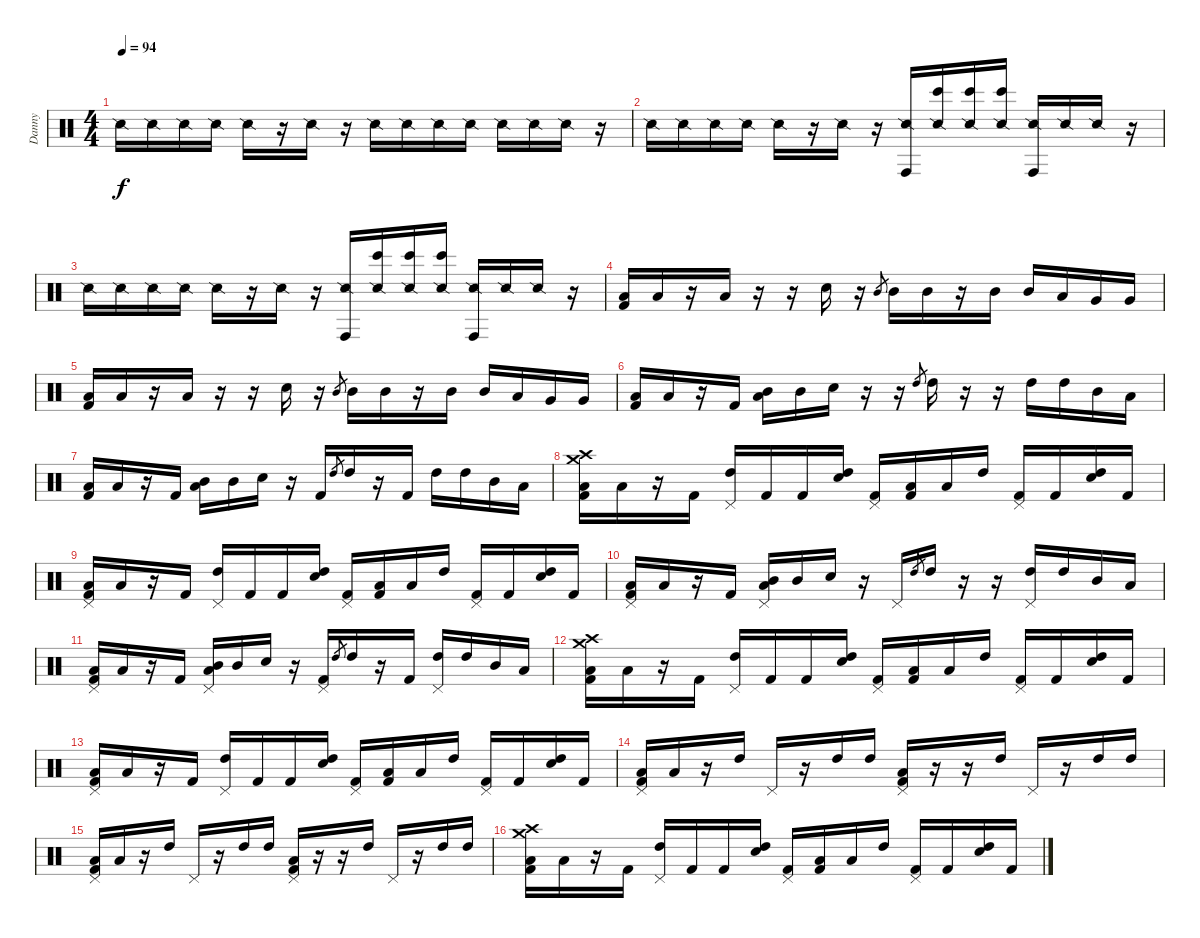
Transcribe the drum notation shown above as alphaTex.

\track ("Danny" "Danny") {instrument percussion}
\staff {score}
\articulation defaults
\ts (4 4)
\tempo 94
\clef neutral
\ks c "Snare (side stick) 2".16{dy f} "Snare (side stick) 2".16 "Snare (side stick) 2".16 "Snare (side stick) 2".16 "Snare (side stick) 2".16
r.16 "Snare (side stick) 2".16 r.16 "Snare (side stick) 2".16 "Snare (side stick) 2".16 "Snare (side stick) 2".16 "Snare (side stick) 2".16 "Snare (side stick) 2".16 "Snare (side stick) 2".16 "Snare (side stick) 2".16 r.16 |
"Snare (side stick) 2".16 "Snare (side stick) 2".16 "Snare (side stick) 2".16 "Snare (side stick) 2".16 "Snare (side stick) 2".16 r.16 "Snare (side stick) 2".16 r.16 ("Conga high (hit)" "Snare (side stick) 2").16 ("Bongo High (hit)" "Snare (side stick) 2").16 ("Bongo High (hit)" "Snare (side stick) 2").16 ("Bongo High (hit)" "Snare (side stick) 2").16 ("Conga high (hit)" "Snare (side stick) 2").16 "Snare (side stick) 2".16 "Snare (side stick) 2".16 r.16 |
"Snare (side stick) 2".16 "Snare (side stick) 2".16 "Snare (side stick) 2".16 "Snare (side stick) 2".16 "Snare (side stick) 2".16 r.16 "Snare (side stick) 2".16 r.16 ("Conga high (hit)" "Snare (side stick) 2").16 ("Bongo High (hit)" "Snare (side stick) 2").16 ("Bongo High (hit)" "Snare (side stick) 2").16 ("Bongo High (hit)" "Snare (side stick) 2").16 ("Conga high (hit)" "Snare (side stick) 2").16 "Snare (side stick) 2".16 "Snare (side stick) 2".16 r.16 |
("Low Floor Tom (hit)" "Kick (hit) 2").16 "Low Floor Tom (hit)".16 r.16 "Low Tom (hit)".16 r.16 r.16 "Snare (hit) 2".16 r.16 "Mid Tom (hit)".8{gr} "Mid Tom (hit)".16 "Mid Tom (hit)".16 r.16 "Mid Tom (hit)".16 "Mid Tom (hit)".16 "Low Tom (hit)".16 "Very Low Tom (hit)".16 "Very Low Tom (hit)".16 |
("Low Floor Tom (hit)" "Kick (hit) 2").16 "Low Floor Tom (hit)".16 r.16 "Low Tom (hit)".16 r.16 r.16 "Snare (hit) 2".16 r.16 "Mid Tom (hit)".8{gr} "Mid Tom (hit)".16 "Mid Tom (hit)".16 r.16 "Mid Tom (hit)".16 "Mid Tom (hit)".16 "Low Tom (hit)".16 "Very Low Tom (hit)".16 "Very Low Tom (hit)".16 |
("Low Floor Tom (hit)" "Kick (hit) 2").16 "Low Floor Tom (hit)".16 r.16 "Kick (hit) 2".16 ("Mid Tom (hit)" "Low Floor Tom (hit)").16 "Mid Tom (hit)".16 "Snare (hit) 2".16 r.16 r.16 "High Tom (hit)".8{gr} "High Tom (hit)".16 r.16 r.16 "High Tom (hit)".16 "High Tom (hit)".16 "Mid Tom (hit)".16 "Low Floor Tom (hit)".16 |
("Low Floor Tom (hit)" "Kick (hit) 2").16 "Low Floor Tom (hit)".16 r.16 "Kick (hit) 2".16 ("Mid Tom (hit)" "Low Floor Tom (hit)").16 "Mid Tom (hit)".16 "Snare (hit) 2".16 r.16 "Kick (hit) 2".16 "High Tom (hit)".8{gr} "High Tom (hit)".16 r.16 "Kick (hit) 2".16 "High Tom (hit)".16 "High Tom (hit)".16 "Mid Tom (hit)".16 "Low Floor Tom (hit)".16 |
("Crash medium (hit)" "Crash high (hit)" "Low Floor Tom (hit)" "Kick (hit) 2").16 "Low Floor Tom (hit)".16 r.16 "Kick (hit) 2".16 ("Pedal Hi-Hat (hit)" "High Tom (hit)").16 "Kick (hit) 2".16 "Kick (hit) 2".16 ("High Tom (hit)" "Snare (hit) 2").16 ("Pedal Hi-Hat (hit)" "Kick (hit) 2").16 ("Low Floor Tom (hit)" "Kick (hit) 2").16 "Low Floor Tom (hit)".16 "High Tom (hit)".16 ("Pedal Hi-Hat (hit)" "Kick (hit) 2").16 "Kick (hit) 2".16 ("High Tom (hit)" "Snare (hit) 2").16 "Kick (hit) 2".16 |
("Pedal Hi-Hat (hit)" "Low Floor Tom (hit)" "Kick (hit) 2").16 "Low Floor Tom (hit)".16 r.16 "Kick (hit) 2".16 ("Pedal Hi-Hat (hit)" "High Tom (hit)").16 "Kick (hit) 2".16 "Kick (hit) 2".16 ("High Tom (hit)" "Snare (hit) 2").16 ("Pedal Hi-Hat (hit)" "Kick (hit) 2").16 ("Low Floor Tom (hit)" "Kick (hit) 2").16 "Low Floor Tom (hit)".16 "High Tom (hit)".16 ("Pedal Hi-Hat (hit)" "Kick (hit) 2").16 "Kick (hit) 2".16 ("High Tom (hit)" "Snare (hit) 2").16 "Kick (hit) 2".16 |
("Pedal Hi-Hat (hit)" "Low Floor Tom (hit)" "Kick (hit) 2").16 "Low Floor Tom (hit)".16 r.16 "Kick (hit) 2".16 ("Pedal Hi-Hat (hit)" "Mid Tom (hit)" "Low Floor Tom (hit)").16 "Mid Tom (hit)".16 "Snare (hit) 2".16 r.16 "Pedal Hi-Hat (hit)".16 "High Tom (hit)".8{gr} "High Tom (hit)".16 r.16 r.16 ("Pedal Hi-Hat (hit)" "High Tom (hit)").16 "High Tom (hit)".16 "Mid Tom (hit)".16 "Low Floor Tom (hit)".16 |
("Pedal Hi-Hat (hit)" "Low Floor Tom (hit)" "Kick (hit) 2").16 "Low Floor Tom (hit)".16 r.16 "Kick (hit) 2".16 ("Pedal Hi-Hat (hit)" "Mid Tom (hit)" "Low Floor Tom (hit)").16 "Mid Tom (hit)".16 "Snare (hit) 2".16 r.16 ("Pedal Hi-Hat (hit)" "Kick (hit) 2").16 "High Tom (hit)".8{gr} "High Tom (hit)".16 r.16 "Kick (hit) 2".16 ("Pedal Hi-Hat (hit)" "High Tom (hit)").16 "High Tom (hit)".16 "Mid Tom (hit)".16 "Low Floor Tom (hit)".16 |
("Crash medium (hit)" "Crash high (hit)" "Low Floor Tom (hit)" "Kick (hit) 2").16 "Low Floor Tom (hit)".16 r.16 "Kick (hit) 2".16 ("Pedal Hi-Hat (hit)" "High Tom (hit)").16 "Kick (hit) 2".16 "Kick (hit) 2".16 ("High Tom (hit)" "Snare (hit) 2").16 ("Pedal Hi-Hat (hit)" "Kick (hit) 2").16 ("Low Floor Tom (hit)" "Kick (hit) 2").16 "Low Floor Tom (hit)".16 "High Tom (hit)".16 ("Pedal Hi-Hat (hit)" "Kick (hit) 2").16 "Kick (hit) 2".16 ("High Tom (hit)" "Snare (hit) 2").16 "Kick (hit) 2".16 |
("Pedal Hi-Hat (hit)" "Low Floor Tom (hit)" "Kick (hit) 2").16 "Low Floor Tom (hit)".16 r.16 "Kick (hit) 2".16 ("Pedal Hi-Hat (hit)" "High Tom (hit)").16 "Kick (hit) 2".16 "Kick (hit) 2".16 ("High Tom (hit)" "Snare (hit) 2").16 ("Pedal Hi-Hat (hit)" "Kick (hit) 2").16 ("Low Floor Tom (hit)" "Kick (hit) 2").16 "Low Floor Tom (hit)".16 "High Tom (hit)".16 ("Pedal Hi-Hat (hit)" "Kick (hit) 2").16 "Kick (hit) 2".16 ("High Tom (hit)" "Snare (hit) 2").16 "Kick (hit) 2".16 |
("Pedal Hi-Hat (hit)" "Low Floor Tom (hit)" "Kick (hit) 2").16 "Low Floor Tom (hit)".16 r.16 "High Tom (hit)".16 "Pedal Hi-Hat (hit)".16 r.16 "High Tom (hit)".16 "High Tom (hit)".16 ("Pedal Hi-Hat (hit)" "Low Floor Tom (hit)" "Kick (hit) 2").16 r.16 r.16 "High Tom (hit)".16 "Pedal Hi-Hat (hit)".16 r.16 "High Tom (hit)".16 "High Tom (hit)".16 |
("Pedal Hi-Hat (hit)" "Low Floor Tom (hit)" "Kick (hit) 2").16 "Low Floor Tom (hit)".16 r.16 "High Tom (hit)".16 "Pedal Hi-Hat (hit)".16 r.16 "High Tom (hit)".16 "High Tom (hit)".16 ("Pedal Hi-Hat (hit)" "Low Floor Tom (hit)" "Kick (hit) 2").16 r.16 r.16 "High Tom (hit)".16 "Pedal Hi-Hat (hit)".16 r.16 "High Tom (hit)".16 "High Tom (hit)".16 |
("Crash medium (hit)" "Crash high (hit)" "Low Floor Tom (hit)" "Kick (hit) 2").16 "Low Floor Tom (hit)".16 r.16 "Kick (hit) 2".16 ("Pedal Hi-Hat (hit)" "High Tom (hit)").16 "Kick (hit) 2".16 "Kick (hit) 2".16 ("High Tom (hit)" "Snare (hit) 2").16 ("Pedal Hi-Hat (hit)" "Kick (hit) 2").16 ("Low Floor Tom (hit)" "Kick (hit) 2").16 "Low Floor Tom (hit)".16 "High Tom (hit)".16 ("Pedal Hi-Hat (hit)" "Kick (hit) 2").16 "Kick (hit) 2".16 ("High Tom (hit)" "Snare (hit) 2").16 "Kick (hit) 2".16
